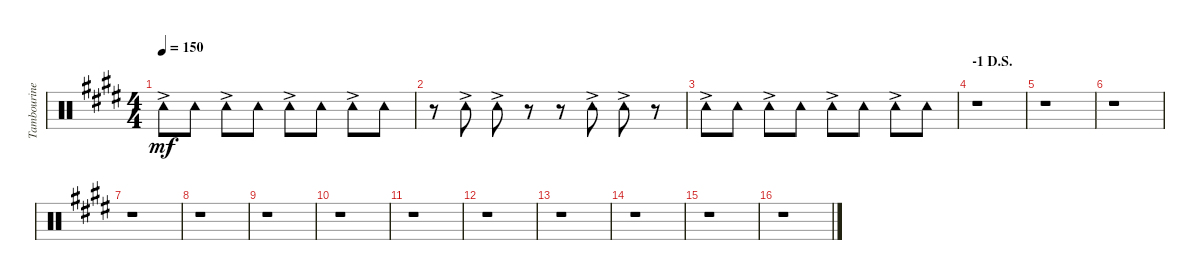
\track ("Tambourine" "Tambourine") {instrument percussion}
\staff {score}
\articulation defaults
\ts (4 4)
\tempo 150
\clef neutral
\ks e "Tambourine (hit)"{ac}.8{dy mf} "Tambourine (hit)".8 "Tambourine (hit)"{ac}.8 "Tambourine (hit)".8 "Tambourine (hit)"{ac}.8 "Tambourine (hit)".8 "Tambourine (hit)"{ac}.8 "Tambourine (hit)".8
|
r.8 "Tambourine (hit)"{ac}.8 "Tambourine (hit)"{ac}.8 r.8 r.8 "Tambourine (hit)"{ac}.8 "Tambourine (hit)"{ac}.8 r.8 |
"Tambourine (hit)"{ac}.8 "Tambourine (hit)".8 "Tambourine (hit)"{ac}.8 "Tambourine (hit)".8 "Tambourine (hit)"{ac}.8 "Tambourine (hit)".8 "Tambourine (hit)"{ac}.8 "Tambourine (hit)".8 |
\section ("" "-1 D.S.")
r.1 |
r.1 |
r.1 |
r.1 |
r.1 |
r.1 |
r.1 |
r.1 |
r.1 |
r.1 |
r.1 |
r.1 |
r.1
